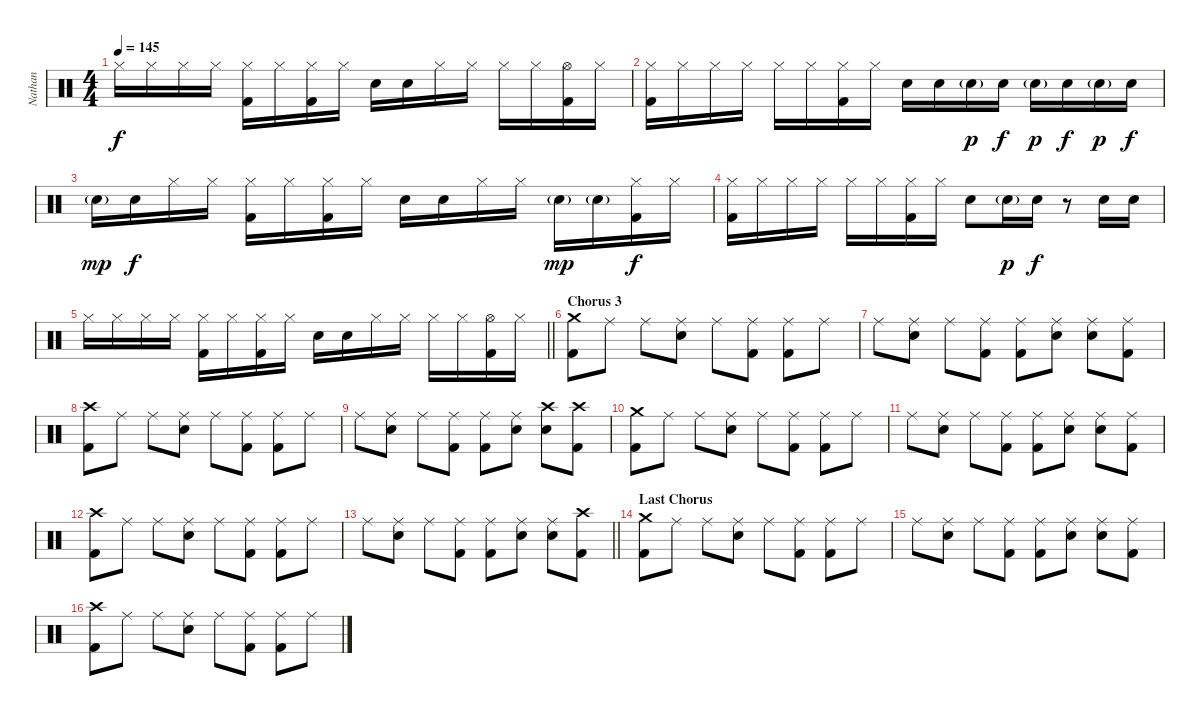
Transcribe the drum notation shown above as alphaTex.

\track ("Nathan" "Nathan") {instrument percussion}
\staff {score}
\articulation defaults
\ts (4 4)
\tempo 145
\clef neutral
\ks c "Hi-Hat (closed)".16{dy f} "Hi-Hat (closed)".16 "Hi-Hat (closed)".16 "Hi-Hat (closed)".16
("Hi-Hat (closed)" "Kick (hit) 2").16 "Hi-Hat (closed)".16 ("Hi-Hat (closed)" "Kick (hit) 2").16 "Hi-Hat (closed)".16 "Electric Snare (hit)".16 "Electric Snare (hit)".16 "Hi-Hat (closed)".16 "Hi-Hat (closed)".16 "Hi-Hat (closed)".16 "Hi-Hat (closed)".16 ("Hi-Hat (open)" "Kick (hit) 2").16 "Hi-Hat (closed)".16 |
("Hi-Hat (closed)" "Kick (hit) 2").16 "Hi-Hat (closed)".16 "Hi-Hat (closed)".16 "Hi-Hat (closed)".16 "Hi-Hat (closed)".16 "Hi-Hat (closed)".16 ("Hi-Hat (closed)" "Kick (hit) 2").16 "Hi-Hat (closed)".16 "Electric Snare (hit)".16 "Electric Snare (hit)".16 "Electric Snare (hit)"{g}.16{dy p} "Electric Snare (hit)".16{dy f} "Electric Snare (hit)"{g}.16{dy p} "Electric Snare (hit)".16{dy f} "Electric Snare (hit)"{g}.16{dy p} "Electric Snare (hit)".16{dy f} |
"Electric Snare (hit)"{g}.16{dy mp} "Electric Snare (hit)".16{dy f} "Hi-Hat (closed)".16 "Hi-Hat (closed)".16 ("Hi-Hat (closed)" "Kick (hit) 2").16 "Hi-Hat (closed)".16 ("Hi-Hat (closed)" "Kick (hit) 2").16 "Hi-Hat (closed)".16 "Electric Snare (hit)".16 "Electric Snare (hit)".16 "Hi-Hat (closed)".16 "Hi-Hat (closed)".16 "Electric Snare (hit)"{g}.16{dy mp} "Electric Snare (hit)"{g}.16 ("Hi-Hat (closed)" "Kick (hit) 2").16{dy f} "Hi-Hat (closed)".16 |
("Hi-Hat (closed)" "Kick (hit) 2").16 "Hi-Hat (closed)".16 "Hi-Hat (closed)".16 "Hi-Hat (closed)".16 "Hi-Hat (closed)".16 "Hi-Hat (closed)".16 ("Hi-Hat (closed)" "Kick (hit) 2").16 "Hi-Hat (closed)".16 "Electric Snare (hit)".8 "Electric Snare (hit)"{g}.16{dy p} "Electric Snare (hit)".16{dy f} r.8 "Electric Snare (hit)".16 "Electric Snare (hit)".16 |
\barLineRight lightlight "Hi-Hat (closed)".16 "Hi-Hat (closed)".16 "Hi-Hat (closed)".16 "Hi-Hat (closed)".16
("Hi-Hat (closed)" "Kick (hit) 2").16 "Hi-Hat (closed)".16 ("Hi-Hat (closed)" "Kick (hit) 2").16 "Hi-Hat (closed)".16 "Electric Snare (hit)".16 "Electric Snare (hit)".16 "Hi-Hat (closed)".16 "Hi-Hat (closed)".16 "Hi-Hat (closed)".16 "Hi-Hat (closed)".16 ("Hi-Hat (open)" "Kick (hit) 2").16 "Hi-Hat (closed)".16 |
\section ("" "Chorus 3")
("Crash medium (hit)" "Kick (hit) 2").8 "Ride (middle)".8 "Ride (middle)".8 ("Ride (middle)" "Electric Snare (hit)").8 "Ride (middle)".8 ("Ride (middle)" "Kick (hit) 2").8 ("Ride (middle)" "Kick (hit) 2").8 "Ride (middle)".8 |
"Ride (middle)".8 ("Ride (middle)" "Electric Snare (hit)").8 "Ride (middle)".8 ("Ride (middle)" "Kick (hit) 2").8 ("Ride (middle)" "Kick (hit) 2").8 ("Ride (middle)" "Electric Snare (hit)").8 ("Ride (middle)" "Electric Snare (hit)").8 ("Ride (middle)" "Kick (hit) 2").8 |
("Crash high (hit)" "Kick (hit) 2").8 "Ride (middle)".8 "Ride (middle)".8 ("Ride (middle)" "Electric Snare (hit)").8 "Ride (middle)".8 ("Ride (middle)" "Kick (hit) 2").8 ("Ride (middle)" "Kick (hit) 2").8 "Ride (middle)".8 |
"Ride (middle)".8 ("Ride (middle)" "Electric Snare (hit)").8 "Ride (middle)".8 ("Ride (middle)" "Kick (hit) 2").8 ("Ride (middle)" "Kick (hit) 2").8 ("Ride (middle)" "Electric Snare (hit)").8 ("Crash high (hit)" "Electric Snare (hit)").8 ("Crash high (hit)" "Kick (hit) 2").8 |
("Crash medium (hit)" "Kick (hit) 2").8 "Ride (middle)".8 "Ride (middle)".8 ("Ride (middle)" "Electric Snare (hit)").8 "Ride (middle)".8 ("Ride (middle)" "Kick (hit) 2").8 ("Ride (middle)" "Kick (hit) 2").8 "Ride (middle)".8 |
"Ride (middle)".8 ("Ride (middle)" "Electric Snare (hit)").8 "Ride (middle)".8 ("Ride (middle)" "Kick (hit) 2").8 ("Ride (middle)" "Kick (hit) 2").8 ("Ride (middle)" "Electric Snare (hit)").8 ("Ride (middle)" "Electric Snare (hit)").8 ("Ride (middle)" "Kick (hit) 2").8 |
("Crash high (hit)" "Kick (hit) 2").8 "Ride (middle)".8 "Ride (middle)".8 ("Ride (middle)" "Electric Snare (hit)").8 "Ride (middle)".8 ("Ride (middle)" "Kick (hit) 2").8 ("Ride (middle)" "Kick (hit) 2").8 "Ride (middle)".8 |
\barLineRight lightlight "Ride (middle)".8
("Ride (middle)" "Electric Snare (hit)").8 "Ride (middle)".8 ("Ride (middle)" "Kick (hit) 2").8 ("Ride (middle)" "Kick (hit) 2").8 ("Ride (middle)" "Electric Snare (hit)").8 ("Ride (middle)" "Electric Snare (hit)").8 ("Crash high (hit)" "Kick (hit) 2").8 |
\section ("" "Last Chorus")
("Crash medium (hit)" "Kick (hit) 2").8 "Ride (middle)".8 "Ride (middle)".8 ("Ride (middle)" "Electric Snare (hit)").8 "Ride (middle)".8 ("Ride (middle)" "Kick (hit) 2").8 ("Ride (middle)" "Kick (hit) 2").8 "Ride (middle)".8 |
"Ride (middle)".8 ("Ride (middle)" "Electric Snare (hit)").8 "Ride (middle)".8 ("Ride (middle)" "Kick (hit) 2").8 ("Ride (middle)" "Kick (hit) 2").8 ("Ride (middle)" "Electric Snare (hit)").8 ("Ride (middle)" "Electric Snare (hit)").8 ("Ride (middle)" "Kick (hit) 2").8 |
("Crash high (hit)" "Kick (hit) 2").8 "Ride (middle)".8 "Ride (middle)".8 ("Ride (middle)" "Electric Snare (hit)").8 "Ride (middle)".8 ("Ride (middle)" "Kick (hit) 2").8 ("Ride (middle)" "Kick (hit) 2").8 "Ride (middle)".8
